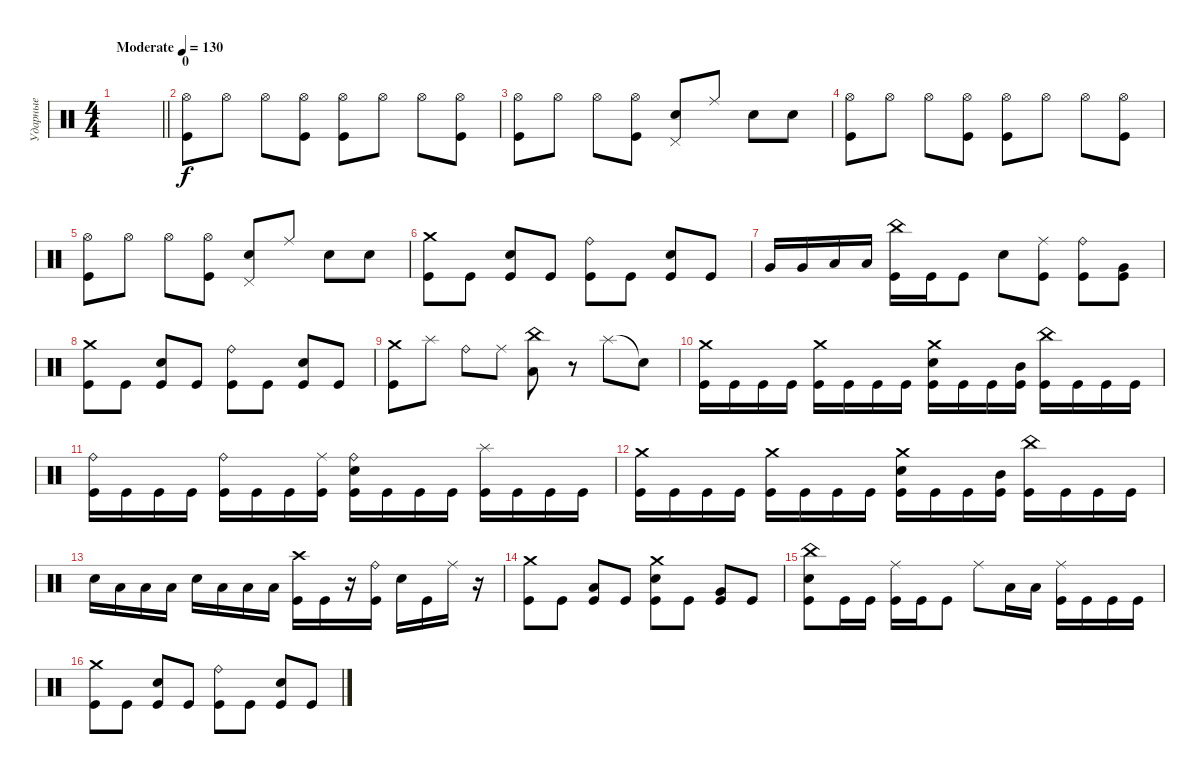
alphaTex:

\track ("Ударные" "Ударные") {instrument percussion}
\staff {score}
\articulation defaults
\ts (4 4)
\tempo (130 "Moderate")
\clef neutral
\barLineRight lightlight
\ks c
|
\section ("" "0")
("Hi-Hat (open)" "Kick (hit)").8 "Hi-Hat (open)".8 "Hi-Hat (open)".8 ("Hi-Hat (open)" "Kick (hit)").8 ("Hi-Hat (open)" "Kick (hit)").8 "Hi-Hat (open)".8 "Hi-Hat (open)".8 ("Hi-Hat (open)" "Kick (hit)").8 |
("Hi-Hat (open)" "Kick (hit)").8 "Hi-Hat (open)".8 "Hi-Hat (open)".8 ("Hi-Hat (open)" "Kick (hit)").8 ("Pedal Hi-Hat (hit)" "Electric Snare (hit)").8 "Ride (middle)".8 "Electric Snare (hit)".8 "Electric Snare (hit)".8 |
("Hi-Hat (open)" "Kick (hit)").8 "Hi-Hat (open)".8 "Hi-Hat (open)".8 ("Hi-Hat (open)" "Kick (hit)").8 ("Hi-Hat (open)" "Kick (hit)").8 "Hi-Hat (open)".8 "Hi-Hat (open)".8 ("Hi-Hat (open)" "Kick (hit)").8 |
("Hi-Hat (open)" "Kick (hit)").8 "Hi-Hat (open)".8 "Hi-Hat (open)".8 ("Hi-Hat (open)" "Kick (hit)").8 ("Pedal Hi-Hat (hit)" "Electric Snare (hit)").8 "Ride (middle)".8 "Electric Snare (hit)".8 "Electric Snare (hit)".8 |
("Crash medium (hit)" "Kick (hit)").8 "Kick (hit)".8 ("Electric Snare (hit)" "Kick (hit)").8 "Kick (hit)".8 ("Ride (bell)" "Kick (hit)").8 "Kick (hit)".8 ("Electric Snare (hit)" "Kick (hit)").8 "Kick (hit)".8 |
"Very Low Tom (hit)".16 "Very Low Tom (hit)".16 "Low Floor Tom (hit)".16 "Low Floor Tom (hit)".16 ("China (hit)" "Kick (hit)").16 "Kick (hit)".16 "Kick (hit)".8 "Electric Snare (hit)".8 ("Ride (middle)" "Kick (hit)").8 ("Ride (bell)" "Kick (hit)").8 ("Very Low Tom (hit)" "Kick (hit)").8 |
("Crash medium (hit)" "Kick (hit)").8 "Kick (hit)".8 ("Electric Snare (hit)" "Kick (hit)").8 "Kick (hit)".8 ("Ride (bell)" "Kick (hit)").8 "Kick (hit)".8 ("Electric Snare (hit)" "Kick (hit)").8 "Kick (hit)".8 |
("Crash medium (hit)" "Kick (hit)").8 "Splash (hit)".8 "Ride (bell)".8 "Ride (middle)".8 ("China (hit)" "Low Floor Tom (hit)").8 r.8 "Splash (hit)".8 "Snare (hit)"{t}.8 |
("Crash medium (hit)" "Kick (hit)").16 "Kick (hit)".16 "Kick (hit)".16 "Kick (hit)".16 ("Crash medium (hit)" "Kick (hit)").16 "Kick (hit)".16 "Kick (hit)".16 "Kick (hit)".16 ("Crash medium (hit)" "Electric Snare (hit)" "Kick (hit)").16 "Kick (hit)".16 "Kick (hit)".16 ("Mid Tom (hit)" "Kick (hit)").16 ("China (hit)" "Kick (hit)").16 "Kick (hit)".16 "Kick (hit)".16 "Kick (hit)".16 |
("Ride (bell)" "Kick (hit)").16 "Kick (hit)".16 "Kick (hit)".16 "Kick (hit)".16 ("Ride (bell)" "Kick (hit)").16 "Kick (hit)".16 "Kick (hit)".16 ("Ride (middle)" "Kick (hit)").16 ("Ride (bell)" "Electric Snare (hit)" "Kick (hit)").16 "Kick (hit)".16 "Kick (hit)".16 "Kick (hit)".16 ("Splash (hit)" "Kick (hit)").16 "Kick (hit)".16 "Kick (hit)".16 "Kick (hit)".16 |
("Crash medium (hit)" "Kick (hit)").16 "Kick (hit)".16 "Kick (hit)".16 "Kick (hit)".16 ("Crash medium (hit)" "Kick (hit)").16 "Kick (hit)".16 "Kick (hit)".16 "Kick (hit)".16 ("Crash medium (hit)" "Electric Snare (hit)" "Kick (hit)").16 "Kick (hit)".16 "Kick (hit)".16 ("Mid Tom (hit)" "Kick (hit)").16 ("China (hit)" "Kick (hit)").16 "Kick (hit)".16 "Kick (hit)".16 "Kick (hit)".16 |
"Electric Snare (hit)".16 "Low Tom (hit)".16 "Low Tom (hit)".16 "Low Tom (hit)".16 "Electric Snare (hit)".16 "Low Floor Tom (hit)".16 "Low Floor Tom (hit)".16 "Low Floor Tom (hit)".16 ("Crash high (hit)" "Kick (hit)").16 "Kick (hit)".16 r.16 ("Ride (bell)" "Kick (hit)").16 "Electric Snare (hit)".16 "Kick (hit)".16 "Ride (middle)".16 r.16 |
("Crash medium (hit)" "Kick (hit)").8 "Kick (hit)".8 ("Low Floor Tom (hit)" "Kick (hit)").8 "Kick (hit)".8 ("Crash medium (hit)" "Electric Snare (hit)" "Kick (hit)").8 "Kick (hit)".8 ("Very Low Tom (hit)" "Kick (hit)").8 "Kick (hit)".8 |
("China (hit)" "Electric Snare (hit)" "Kick (hit)").8 "Kick (hit)".16 "Kick (hit)".16 ("Ride (middle)" "Kick (hit)").16 "Kick (hit)".16 "Kick (hit)".8 "Ride (middle)".8 "Low Tom (hit)".16 "Low Tom (hit)".16 ("Ride (middle)" "Kick (hit)").16 "Kick (hit)".16 "Kick (hit)".16 "Kick (hit)".16 |
("Crash medium (hit)" "Kick (hit)").8 "Kick (hit)".8 ("Electric Snare (hit)" "Kick (hit)").8 "Kick (hit)".8 ("Ride (bell)" "Kick (hit)").8 "Kick (hit)".8 ("Electric Snare (hit)" "Kick (hit)").8 "Kick (hit)".8
